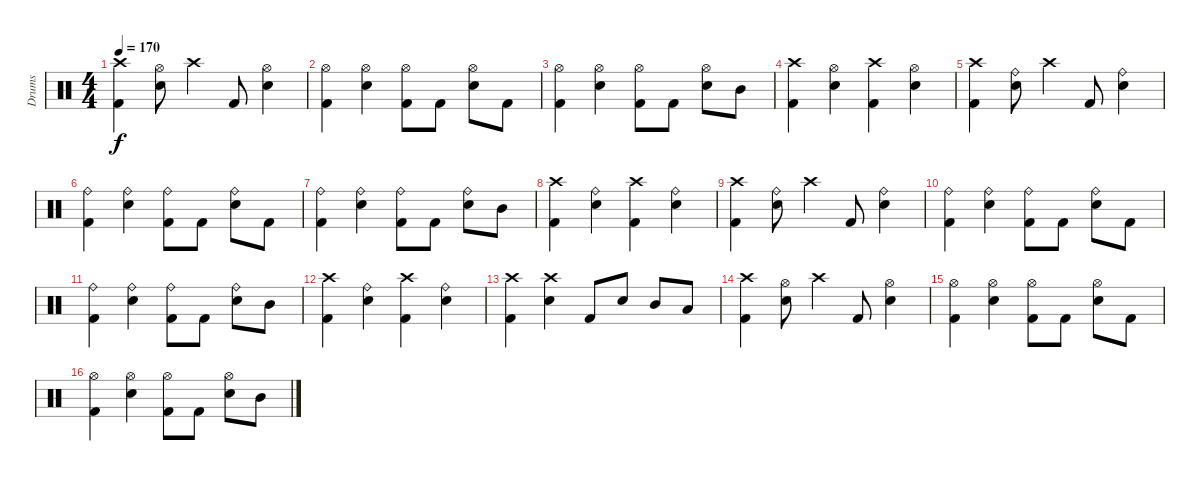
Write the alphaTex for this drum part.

\track ("Drums" "Drums") {instrument percussion}
\staff {score}
\articulation defaults
\ts (4 4)
\tempo 170
\clef neutral
\ks c
("Crash high (hit)" "Kick (hit) 2").4{dy f} ("Hi-Hat (open)" "Snare (hit) 2").8 "Crash high (hit)".4 "Kick (hit) 2".8 ("Hi-Hat (open)" "Snare (hit) 2").4 |
("Hi-Hat (open)" "Kick (hit) 2").4 ("Hi-Hat (open)" "Snare (hit) 2").4 ("Hi-Hat (open)" "Kick (hit) 2").8 "Kick (hit) 2".8 ("Hi-Hat (open)" "Snare (hit) 2").8 "Kick (hit) 2".8 |
("Hi-Hat (open)" "Kick (hit) 2").4 ("Hi-Hat (open)" "Snare (hit) 2").4 ("Hi-Hat (open)" "Kick (hit) 2").8 "Kick (hit) 2".8 ("Hi-Hat (open)" "Snare (hit) 2").8 "Mid Tom (hit)".8 |
("Crash high (hit)" "Kick (hit) 2").4 ("Hi-Hat (open)" "Snare (hit) 2").4 ("Crash high (hit)" "Kick (hit) 2").4 ("Hi-Hat (open)" "Snare (hit) 2").4 |
("Crash high (hit)" "Kick (hit) 2").4 ("Ride (bell)" "Snare (hit) 2").8 "Crash high (hit)".4 "Kick (hit) 2".8 ("Ride (bell)" "Snare (hit) 2").4 |
("Ride (bell)" "Kick (hit) 2").4 ("Ride (bell)" "Snare (hit) 2").4 ("Ride (bell)" "Kick (hit) 2").8 "Kick (hit) 2".8 ("Ride (bell)" "Snare (hit) 2").8 "Kick (hit) 2".8 |
("Ride (bell)" "Kick (hit) 2").4 ("Ride (bell)" "Snare (hit) 2").4 ("Ride (bell)" "Kick (hit) 2").8 "Kick (hit) 2".8 ("Ride (bell)" "Snare (hit) 2").8 "Mid Tom (hit)".8 |
("Crash high (hit)" "Kick (hit) 2").4 ("Ride (bell)" "Snare (hit) 2").4 ("Crash high (hit)" "Kick (hit) 2").4 ("Ride (bell)" "Snare (hit) 2").4 |
("Crash high (hit)" "Kick (hit) 2").4 ("Ride (bell)" "Snare (hit) 2").8 "Crash high (hit)".4 "Kick (hit) 2".8 ("Ride (bell)" "Snare (hit) 2").4 |
("Ride (bell)" "Kick (hit) 2").4 ("Ride (bell)" "Snare (hit) 2").4 ("Ride (bell)" "Kick (hit) 2").8 "Kick (hit) 2".8 ("Ride (bell)" "Snare (hit) 2").8 "Kick (hit) 2".8 |
("Ride (bell)" "Kick (hit) 2").4 ("Ride (bell)" "Snare (hit) 2").4 ("Ride (bell)" "Kick (hit) 2").8 "Kick (hit) 2".8 ("Ride (bell)" "Snare (hit) 2").8 "Mid Tom (hit)".8 |
("Crash high (hit)" "Kick (hit) 2").4 ("Ride (bell)" "Snare (hit) 2").4 ("Crash high (hit)" "Kick (hit) 2").4 ("Ride (bell)" "Snare (hit) 2").4 |
("Crash high (hit)" "Kick (hit) 2").4 ("Crash high (hit)" "Snare (hit) 2").4 "Kick (hit) 2".8 "Snare (hit) 2".8 "Mid Tom (hit)".8 "Low Tom (hit)".8 |
("Crash high (hit)" "Kick (hit) 2").4 ("Hi-Hat (open)" "Snare (hit) 2").8 "Crash high (hit)".4 "Kick (hit) 2".8 ("Hi-Hat (open)" "Snare (hit) 2").4 |
("Hi-Hat (open)" "Kick (hit) 2").4 ("Hi-Hat (open)" "Snare (hit) 2").4 ("Hi-Hat (open)" "Kick (hit) 2").8 "Kick (hit) 2".8 ("Hi-Hat (open)" "Snare (hit) 2").8 "Kick (hit) 2".8 |
("Hi-Hat (open)" "Kick (hit) 2").4 ("Hi-Hat (open)" "Snare (hit) 2").4 ("Hi-Hat (open)" "Kick (hit) 2").8 "Kick (hit) 2".8 ("Hi-Hat (open)" "Snare (hit) 2").8 "Mid Tom (hit)".8
